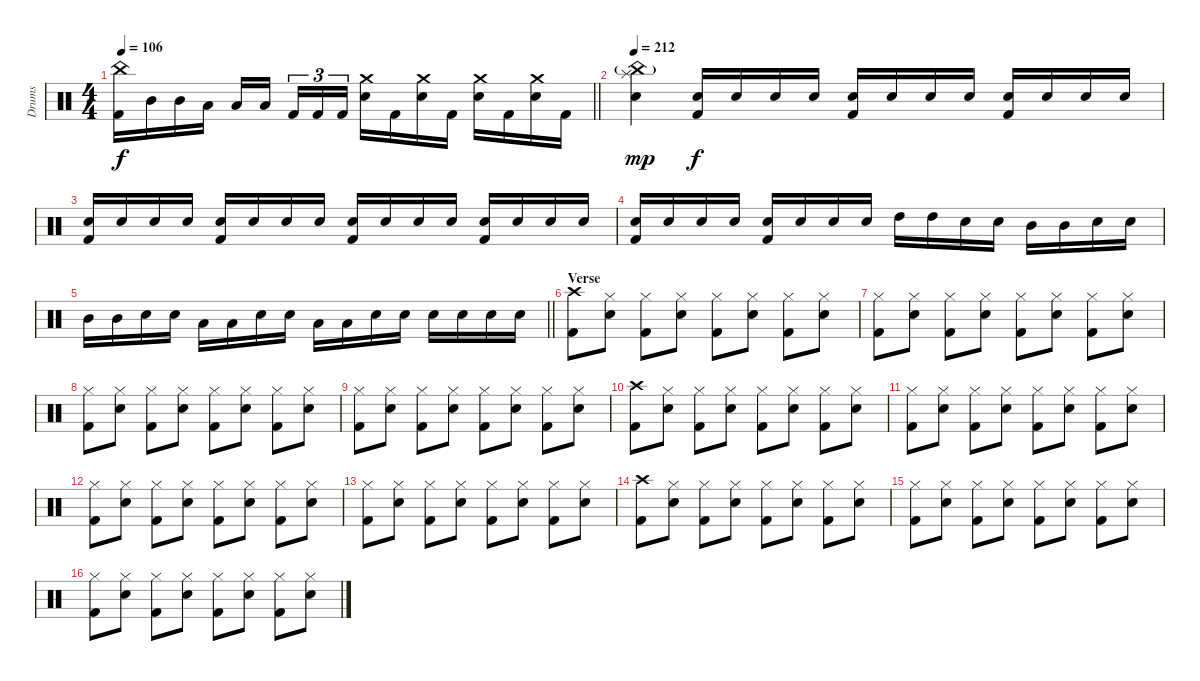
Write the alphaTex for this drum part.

\track ("Drums" "Drums") {instrument percussion}
\staff {score}
\articulation defaults
\ts (4 4)
\tempo 106
\clef neutral
\barLineRight lightlight
\ks c
("China (hit)" "Kick (hit) 2").16{dy f} "Mid Tom (hit)".16 "Mid Tom (hit)".16 "Low Tom (hit)".16 "Low Tom (hit)".16 "Low Tom (hit)".16 "Kick (hit) 2".16{tu (3 2)} "Kick (hit) 2".16{tu (3 2)} "Kick (hit) 2".16{tu (3 2)} ("Crash medium (hit)" "Electric Snare (hit)").16 "Kick (hit) 2".16 ("Crash medium (hit)" "Electric Snare (hit)").16 "Kick (hit) 2".16 ("Crash medium (hit)" "Electric Snare (hit)").16 "Kick (hit) 2".16 ("Crash medium (hit)" "Electric Snare (hit)").16 "Kick (hit) 2".16 |
\section ("" "")
\tempo 212
("Splash (hit)" "China (hit)"{g} "Electric Snare (hit)").4{dy mp} ("Electric Snare (hit)" "Kick (hit) 2").16{dy f} "Electric Snare (hit)".16 "Electric Snare (hit)".16 "Electric Snare (hit)".16 ("Electric Snare (hit)" "Kick (hit) 2").16 "Electric Snare (hit)".16 "Electric Snare (hit)".16 "Electric Snare (hit)".16 ("Electric Snare (hit)" "Kick (hit) 2").16 "Electric Snare (hit)".16 "Electric Snare (hit)".16 "Electric Snare (hit)".16 |
("Electric Snare (hit)" "Kick (hit) 2").16 "Electric Snare (hit)".16 "Electric Snare (hit)".16 "Electric Snare (hit)".16 ("Electric Snare (hit)" "Kick (hit) 2").16 "Electric Snare (hit)".16 "Electric Snare (hit)".16 "Electric Snare (hit)".16 ("Electric Snare (hit)" "Kick (hit) 2").16 "Electric Snare (hit)".16 "Electric Snare (hit)".16 "Electric Snare (hit)".16 ("Electric Snare (hit)" "Kick (hit) 2").16 "Electric Snare (hit)".16 "Electric Snare (hit)".16 "Electric Snare (hit)".16 |
("Electric Snare (hit)" "Kick (hit) 2").16 "Electric Snare (hit)".16 "Electric Snare (hit)".16 "Electric Snare (hit)".16 ("Electric Snare (hit)" "Kick (hit) 2").16 "Electric Snare (hit)".16 "Electric Snare (hit)".16 "Electric Snare (hit)".16 "High Tom (hit)".16 "High Tom (hit)".16 "Electric Snare (hit)".16 "Electric Snare (hit)".16 "Mid Tom (hit)".16 "Mid Tom (hit)".16 "Electric Snare (hit)".16 "Electric Snare (hit)".16 |
\barLineRight lightlight "Mid Tom (hit)".16 "Mid Tom (hit)".16 "Electric Snare (hit)".16 "Electric Snare (hit)".16 "Low Tom (hit)".16 "Low Tom (hit)".16 "Electric Snare (hit)".16 "Electric Snare (hit)".16 "Low Tom (hit)".16 "Low Tom (hit)".16 "Electric Snare (hit)".16 "Electric Snare (hit)".16 "Electric Snare (hit)".16 "Electric Snare (hit)".16 "Electric Snare (hit)".16 "Electric Snare (hit)".16
|
\section ("" "Verse")
("Crash high (hit)" "Kick (hit) 2").8 ("Hi-Hat (closed)" "Electric Snare (hit)").8 ("Hi-Hat (closed)" "Kick (hit) 2").8 ("Hi-Hat (closed)" "Electric Snare (hit)").8 ("Hi-Hat (closed)" "Kick (hit) 2").8 ("Hi-Hat (closed)" "Electric Snare (hit)").8 ("Hi-Hat (closed)" "Kick (hit) 2").8 ("Hi-Hat (closed)" "Electric Snare (hit)").8 |
("Hi-Hat (closed)" "Kick (hit) 2").8 ("Hi-Hat (closed)" "Electric Snare (hit)").8 ("Hi-Hat (closed)" "Kick (hit) 2").8 ("Hi-Hat (closed)" "Electric Snare (hit)").8 ("Hi-Hat (closed)" "Kick (hit) 2").8 ("Hi-Hat (closed)" "Electric Snare (hit)").8 ("Hi-Hat (closed)" "Kick (hit) 2").8 ("Hi-Hat (closed)" "Electric Snare (hit)").8 |
("Hi-Hat (closed)" "Kick (hit) 2").8 ("Hi-Hat (closed)" "Electric Snare (hit)").8 ("Hi-Hat (closed)" "Kick (hit) 2").8 ("Hi-Hat (closed)" "Electric Snare (hit)").8 ("Hi-Hat (closed)" "Kick (hit) 2").8 ("Hi-Hat (closed)" "Electric Snare (hit)").8 ("Hi-Hat (closed)" "Kick (hit) 2").8 ("Hi-Hat (closed)" "Electric Snare (hit)").8 |
("Hi-Hat (closed)" "Kick (hit) 2").8 ("Hi-Hat (closed)" "Electric Snare (hit)").8 ("Hi-Hat (closed)" "Kick (hit) 2").8 ("Hi-Hat (closed)" "Electric Snare (hit)").8 ("Hi-Hat (closed)" "Kick (hit) 2").8 ("Hi-Hat (closed)" "Electric Snare (hit)").8 ("Hi-Hat (closed)" "Kick (hit) 2").8 ("Hi-Hat (closed)" "Electric Snare (hit)").8 |
("Crash high (hit)" "Kick (hit) 2").8 ("Hi-Hat (closed)" "Electric Snare (hit)").8 ("Hi-Hat (closed)" "Kick (hit) 2").8 ("Hi-Hat (closed)" "Electric Snare (hit)").8 ("Hi-Hat (closed)" "Kick (hit) 2").8 ("Hi-Hat (closed)" "Electric Snare (hit)").8 ("Hi-Hat (closed)" "Kick (hit) 2").8 ("Hi-Hat (closed)" "Electric Snare (hit)").8 |
("Hi-Hat (closed)" "Kick (hit) 2").8 ("Hi-Hat (closed)" "Electric Snare (hit)").8 ("Hi-Hat (closed)" "Kick (hit) 2").8 ("Hi-Hat (closed)" "Electric Snare (hit)").8 ("Hi-Hat (closed)" "Kick (hit) 2").8 ("Hi-Hat (closed)" "Electric Snare (hit)").8 ("Hi-Hat (closed)" "Kick (hit) 2").8 ("Hi-Hat (closed)" "Electric Snare (hit)").8 |
("Hi-Hat (closed)" "Kick (hit) 2").8 ("Hi-Hat (closed)" "Electric Snare (hit)").8 ("Hi-Hat (closed)" "Kick (hit) 2").8 ("Hi-Hat (closed)" "Electric Snare (hit)").8 ("Hi-Hat (closed)" "Kick (hit) 2").8 ("Hi-Hat (closed)" "Electric Snare (hit)").8 ("Hi-Hat (closed)" "Kick (hit) 2").8 ("Hi-Hat (closed)" "Electric Snare (hit)").8 |
("Hi-Hat (closed)" "Kick (hit) 2").8 ("Hi-Hat (closed)" "Electric Snare (hit)").8 ("Hi-Hat (closed)" "Kick (hit) 2").8 ("Hi-Hat (closed)" "Electric Snare (hit)").8 ("Hi-Hat (closed)" "Kick (hit) 2").8 ("Hi-Hat (closed)" "Electric Snare (hit)").8 ("Hi-Hat (closed)" "Kick (hit) 2").8 ("Hi-Hat (closed)" "Electric Snare (hit)").8 |
("Crash high (hit)" "Kick (hit) 2").8 ("Hi-Hat (closed)" "Electric Snare (hit)").8 ("Hi-Hat (closed)" "Kick (hit) 2").8 ("Hi-Hat (closed)" "Electric Snare (hit)").8 ("Hi-Hat (closed)" "Kick (hit) 2").8 ("Hi-Hat (closed)" "Electric Snare (hit)").8 ("Hi-Hat (closed)" "Kick (hit) 2").8 ("Hi-Hat (closed)" "Electric Snare (hit)").8 |
("Hi-Hat (closed)" "Kick (hit) 2").8 ("Hi-Hat (closed)" "Electric Snare (hit)").8 ("Hi-Hat (closed)" "Kick (hit) 2").8 ("Hi-Hat (closed)" "Electric Snare (hit)").8 ("Hi-Hat (closed)" "Kick (hit) 2").8 ("Hi-Hat (closed)" "Electric Snare (hit)").8 ("Hi-Hat (closed)" "Kick (hit) 2").8 ("Hi-Hat (closed)" "Electric Snare (hit)").8 |
("Hi-Hat (closed)" "Kick (hit) 2").8 ("Hi-Hat (closed)" "Electric Snare (hit)").8 ("Hi-Hat (closed)" "Kick (hit) 2").8 ("Hi-Hat (closed)" "Electric Snare (hit)").8 ("Hi-Hat (closed)" "Kick (hit) 2").8 ("Hi-Hat (closed)" "Electric Snare (hit)").8 ("Hi-Hat (closed)" "Kick (hit) 2").8 ("Hi-Hat (closed)" "Electric Snare (hit)").8
